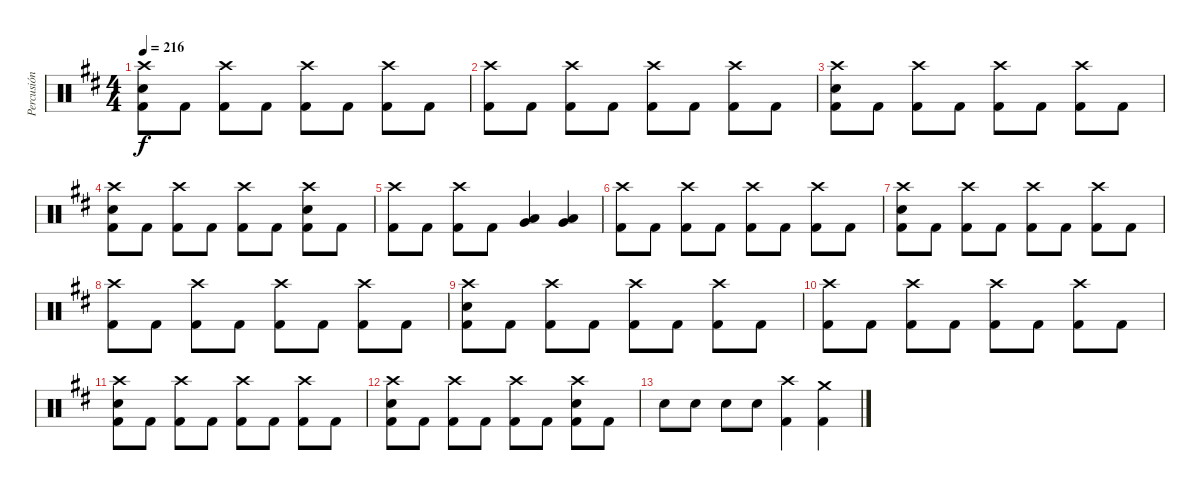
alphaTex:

\track ("Percusión" "Percusión") {instrument percussion}
\staff {score}
\articulation defaults
\ts (4 4)
\tempo 216
\clef neutral
\ks d
("Crash high (hit)" "Electric Snare (hit)" "Kick (hit) 2").8{dy f} "Kick (hit) 2".8 ("Crash high (hit)" "Kick (hit) 2").8 "Kick (hit) 2".8 ("Crash high (hit)" "Kick (hit) 2").8 "Kick (hit) 2".8 ("Crash high (hit)" "Kick (hit) 2").8 "Kick (hit) 2".8 |
("Crash high (hit)" "Kick (hit) 2").8 "Kick (hit) 2".8 ("Crash high (hit)" "Kick (hit) 2").8 "Kick (hit) 2".8 ("Crash high (hit)" "Kick (hit) 2").8 "Kick (hit) 2".8 ("Crash high (hit)" "Kick (hit) 2").8 "Kick (hit) 2".8 |
("Crash high (hit)" "Electric Snare (hit)" "Kick (hit) 2").8 "Kick (hit) 2".8 ("Crash high (hit)" "Kick (hit) 2").8 "Kick (hit) 2".8 ("Crash high (hit)" "Kick (hit) 2").8 "Kick (hit) 2".8 ("Crash high (hit)" "Kick (hit) 2").8 "Kick (hit) 2".8 |
("Crash high (hit)" "Electric Snare (hit)" "Kick (hit) 2").8 "Kick (hit) 2".8 ("Crash high (hit)" "Kick (hit) 2").8 "Kick (hit) 2".8 ("Crash high (hit)" "Kick (hit) 2").8 "Kick (hit) 2".8 ("Crash high (hit)" "Electric Snare (hit)" "Kick (hit) 2").8 "Kick (hit) 2".8 |
("Crash high (hit)" "Kick (hit) 2").8 "Kick (hit) 2".8 ("Crash high (hit)" "Kick (hit) 2").8 "Kick (hit) 2".8 ("Low Tom (hit)" "Very Low Tom (hit)").4 ("Low Tom (hit)" "Very Low Tom (hit)").4 |
("Crash high (hit)" "Kick (hit) 2").8 "Kick (hit) 2".8 ("Crash high (hit)" "Kick (hit) 2").8 "Kick (hit) 2".8 ("Crash high (hit)" "Kick (hit) 2").8 "Kick (hit) 2".8 ("Crash high (hit)" "Kick (hit) 2").8 "Kick (hit) 2".8 |
("Crash high (hit)" "Electric Snare (hit)" "Kick (hit) 2").8 "Kick (hit) 2".8 ("Crash high (hit)" "Kick (hit) 2").8 "Kick (hit) 2".8 ("Crash high (hit)" "Kick (hit) 2").8 "Kick (hit) 2".8 ("Crash high (hit)" "Kick (hit) 2").8 "Kick (hit) 2".8 |
("Crash high (hit)" "Kick (hit) 2").8 "Kick (hit) 2".8 ("Crash high (hit)" "Kick (hit) 2").8 "Kick (hit) 2".8 ("Crash high (hit)" "Kick (hit) 2").8 "Kick (hit) 2".8 ("Crash high (hit)" "Kick (hit) 2").8 "Kick (hit) 2".8 |
("Crash high (hit)" "Electric Snare (hit)" "Kick (hit) 2").8 "Kick (hit) 2".8 ("Crash high (hit)" "Kick (hit) 2").8 "Kick (hit) 2".8 ("Crash high (hit)" "Kick (hit) 2").8 "Kick (hit) 2".8 ("Crash high (hit)" "Kick (hit) 2").8 "Kick (hit) 2".8 |
("Crash high (hit)" "Kick (hit) 2").8 "Kick (hit) 2".8 ("Crash high (hit)" "Kick (hit) 2").8 "Kick (hit) 2".8 ("Crash high (hit)" "Kick (hit) 2").8 "Kick (hit) 2".8 ("Crash high (hit)" "Kick (hit) 2").8 "Kick (hit) 2".8 |
("Crash high (hit)" "Electric Snare (hit)" "Kick (hit) 2").8 "Kick (hit) 2".8 ("Crash high (hit)" "Kick (hit) 2").8 "Kick (hit) 2".8 ("Crash high (hit)" "Kick (hit) 2").8 "Kick (hit) 2".8 ("Crash high (hit)" "Kick (hit) 2").8 "Kick (hit) 2".8 |
("Crash high (hit)" "Electric Snare (hit)" "Kick (hit) 2").8 "Kick (hit) 2".8 ("Crash high (hit)" "Kick (hit) 2").8 "Kick (hit) 2".8 ("Crash high (hit)" "Kick (hit) 2").8 "Kick (hit) 2".8 ("Crash high (hit)" "Electric Snare (hit)" "Kick (hit) 2").8 "Kick (hit) 2".8 |
"Electric Snare (hit)".8 "Electric Snare (hit)".8 "Electric Snare (hit)".8 "Electric Snare (hit)".8 ("Crash high (hit)" "Kick (hit) 2").4 ("Crash medium (hit)" "Kick (hit) 2").4
